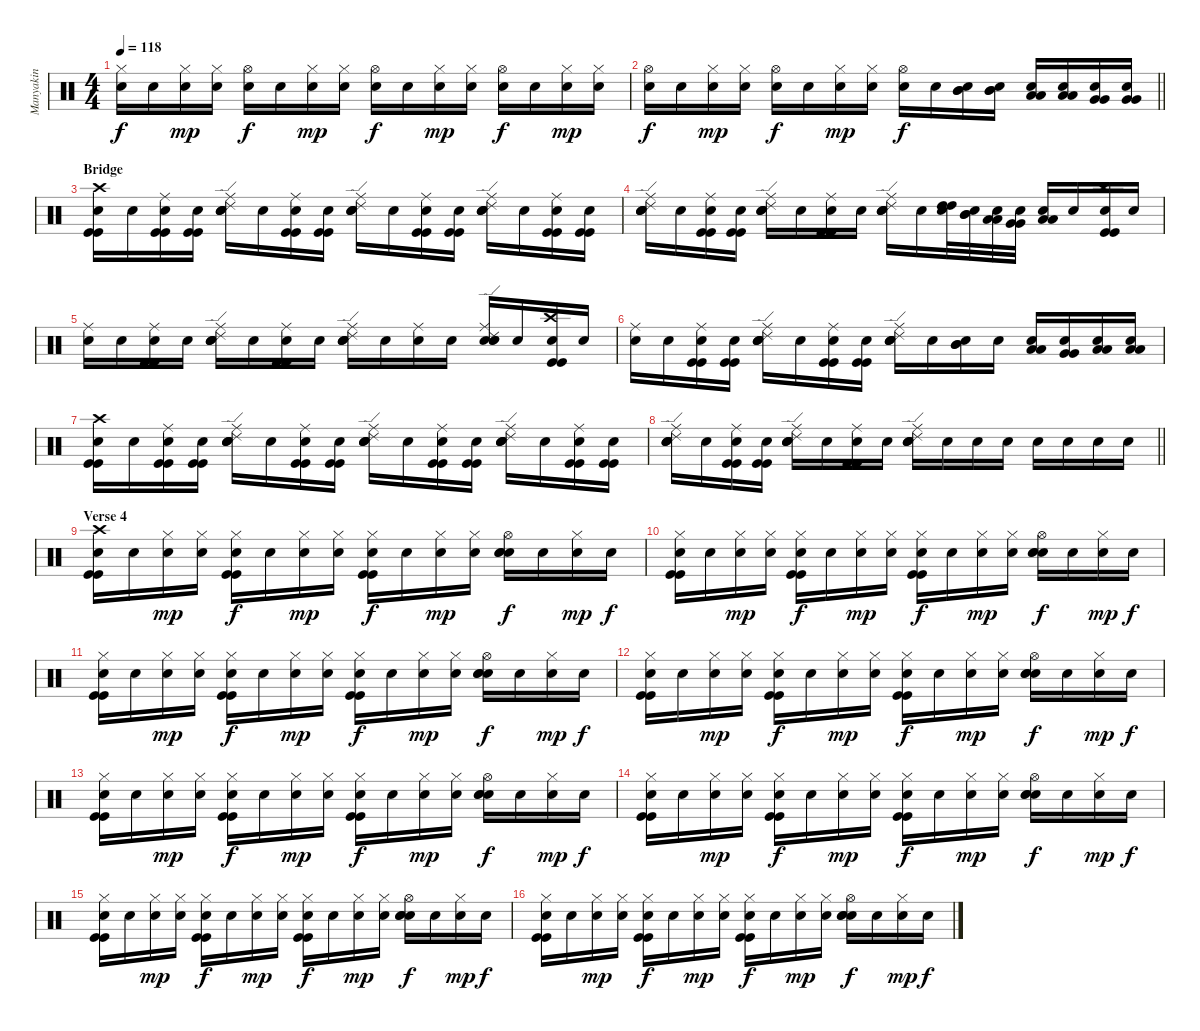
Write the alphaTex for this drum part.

\track ("Manyakin" "Manyakin") {instrument percussion}
\staff {score}
\articulation defaults
\ts (4 4)
\tempo 118
\clef neutral
\ks c
("Hi-Hat (closed)" "Snare (hit)"{x}).16{dy f} "Snare (hit)"{x}.16 ("Hi-Hat (closed)" "Snare (hit)"{x}).16{dy mp} ("Hi-Hat (closed)" "Snare (hit)"{x}).16 ("Hi-Hat (open)" "Snare (hit)"{x}).16{dy f} "Snare (hit)"{x}.16 ("Hi-Hat (closed)" "Snare (hit)"{x}).16{dy mp} ("Hi-Hat (closed)" "Snare (hit)"{x}).16 ("Hi-Hat (open)" "Snare (hit)"{x}).16{dy f} "Snare (hit)"{x}.16 ("Hi-Hat (closed)" "Snare (hit)"{x}).16{dy mp} ("Hi-Hat (closed)" "Snare (hit)"{x}).16 ("Hi-Hat (open)" "Snare (hit)"{x}).16{dy f} "Snare (hit)"{x}.16 ("Hi-Hat (closed)" "Snare (hit)"{x}).16{dy mp} ("Hi-Hat (closed)" "Snare (hit)"{x}).16 |
\barLineRight lightlight
("Hi-Hat (open)" "Snare (hit)"{x}).16{dy f} "Snare (hit)"{x}.16 ("Hi-Hat (closed)" "Snare (hit)"{x}).16{dy mp} ("Hi-Hat (closed)" "Snare (hit)"{x}).16 ("Hi-Hat (open)" "Snare (hit)"{x}).16{dy f} "Snare (hit)"{x}.16 ("Hi-Hat (closed)" "Snare (hit)"{x}).16{dy mp} ("Hi-Hat (closed)" "Snare (hit)"{x}).16 ("Hi-Hat (open)" "Snare (hit)"{x}).16{dy f} "Snare (hit)"{x}.16 ("Mid Tom (hit)" "Mid Tom (hit)" "Snare (hit)"{x}).16 ("Mid Tom (hit)" "Mid Tom (hit)" "Snare (hit)"{x}).16 ("Low Tom (hit)" "Low Tom (hit)" "Snare (hit)"{x}).16 ("Low Tom (hit)" "Low Tom (hit)" "Snare (hit)"{x}).16 ("Very Low Tom (hit)" "Very Low Tom (hit)" "Snare (hit)"{x}).16 ("Very Low Tom (hit)" "Very Low Tom (hit)" "Snare (hit)"{x}).16 |
\section ("" "Bridge")
("Crash high (hit)" "Kick (hit)" "Kick (hit)" "Snare (hit)"{x}).16 "Snare (hit)"{x}.16 ("Ride (middle)" "Kick (hit)" "Kick (hit)" "Snare (hit)"{x}).16 ("Kick (hit)" "Kick (hit)" "Snare (hit)"{x}).16 ("Ride (middle)" "Ride (edge) 2" "Electric Snare (hit)" "Electric Snare (hit)" "Snare (hit)"{x}).16 "Snare (hit)"{x}.16 ("Ride (middle)" "Kick (hit)" "Kick (hit)" "Snare (hit)"{x}).16 ("Kick (hit)" "Kick (hit)" "Snare (hit)"{x}).16 ("Ride (middle)" "Ride (edge) 2" "Electric Snare (hit)" "Electric Snare (hit)" "Snare (hit)"{x}).16 "Snare (hit)"{x}.16 ("Ride (middle)" "Kick (hit)" "Kick (hit)" "Snare (hit)"{x}).16 ("Kick (hit)" "Kick (hit)" "Snare (hit)"{x}).16 ("Ride (middle)" "Ride (edge) 2" "Electric Snare (hit)" "Electric Snare (hit)" "Snare (hit)"{x}).16 "Snare (hit)"{x}.16 ("Ride (middle)" "Kick (hit)" "Kick (hit)" "Snare (hit)"{x}).16 ("Kick (hit)" "Kick (hit)" "Snare (hit)"{x}).16 |
("Ride (middle)" "Ride (edge) 2" "Electric Snare (hit)" "Electric Snare (hit)" "Snare (hit)"{x}).16 "Snare (hit)"{x}.16 ("Ride (middle)" "Kick (hit)" "Kick (hit)" "Snare (hit)"{x}).16 ("Kick (hit)" "Kick (hit)" "Snare (hit)"{x}).16 ("Ride (middle)" "Ride (edge) 2" "Electric Snare (hit)" "Electric Snare (hit)" "Snare (hit)"{x}).16 "Snare (hit)"{x}.16 ("Ride (middle)" "Kick (hit)" "Kick (hit)" "Snare (hit)"{x}).16 "Snare (hit)"{x}.16 ("Ride (middle)" "Ride (edge) 2" "Electric Snare (hit)" "Electric Snare (hit)" "Snare (hit)"{x}).16 "Snare (hit)"{x}.16 ("High Tom (hit)" "High Tom (hit)" "Snare (hit)"{x}).32 ("Mid Tom (hit)" "Mid Tom (hit)" "Snare (hit)"{x}).32 ("Low Tom (hit)" "Low Tom (hit)" "Snare (hit)"{x}).32 ("Very Low Tom (hit)" "Very Low Tom (hit)" "Snare (hit)"{x}).32 ("Low Floor Tom (hit)" "Low Floor Tom (hit)" "Snare (hit)"{x}).16 "Snare (hit)"{x}.16 ("Crash high (hit)" "Kick (hit)" "Kick (hit)" "Snare (hit)"{x}).16 "Snare (hit)"{x}.16 |
("Ride (middle)" "Snare (hit)"{x}).16 "Snare (hit)"{x}.16 ("Ride (middle)" "Kick (hit)" "Kick (hit)" "Snare (hit)"{x}).16 "Snare (hit)"{x}.16 ("Ride (middle)" "Ride (edge) 2" "Electric Snare (hit)" "Electric Snare (hit)" "Snare (hit)"{x}).16 "Snare (hit)"{x}.16 ("Ride (middle)" "Kick (hit)" "Kick (hit)" "Snare (hit)"{x}).16 "Snare (hit)"{x}.16 ("Ride (middle)" "Ride (edge) 2" "Electric Snare (hit)" "Electric Snare (hit)" "Snare (hit)"{x}).16 "Snare (hit)"{x}.16 ("Ride (middle)" "Snare (hit)"{x}).16 "Snare (hit)"{x}.16 ("Ride (middle)" "Ride (edge) 2" "Electric Snare (hit)" "Electric Snare (hit)" "Snare (hit)"{x}).16 "Snare (hit)"{x}.16 ("Crash high (hit)" "Kick (hit)" "Kick (hit)" "Snare (hit)"{x}).16 "Snare (hit)"{x}.16 |
("Ride (middle)" "Snare (hit)"{x}).16 "Snare (hit)"{x}.16 ("Ride (middle)" "Kick (hit)" "Kick (hit)" "Snare (hit)"{x}).16 ("Kick (hit)" "Kick (hit)" "Snare (hit)"{x}).16 ("Ride (middle)" "Ride (edge) 2" "Electric Snare (hit)" "Electric Snare (hit)" "Snare (hit)"{x}).16 "Snare (hit)"{x}.16 ("Ride (middle)" "Kick (hit)" "Kick (hit)" "Snare (hit)"{x}).16 ("Kick (hit)" "Kick (hit)" "Snare (hit)"{x}).16 ("Ride (middle)" "Ride (edge) 2" "Electric Snare (hit)" "Electric Snare (hit)" "Snare (hit)"{x}).16 "Snare (hit)"{x}.16 ("Mid Tom (hit)" "Mid Tom (hit)" "Snare (hit)"{x}).16 "Snare (hit)"{x}.16 ("Low Tom (hit)" "Low Tom (hit)" "Snare (hit)"{x}).16 ("Very Low Tom (hit)" "Very Low Tom (hit)" "Snare (hit)"{x}).16 ("Low Floor Tom (hit)" "Low Floor Tom (hit)" "Snare (hit)"{x}).16 ("Low Floor Tom (hit)" "Low Floor Tom (hit)" "Snare (hit)"{x}).16 |
("Crash high (hit)" "Kick (hit)" "Kick (hit)" "Snare (hit)"{x}).16 "Snare (hit)"{x}.16 ("Ride (middle)" "Kick (hit)" "Kick (hit)" "Snare (hit)"{x}).16 ("Kick (hit)" "Kick (hit)" "Snare (hit)"{x}).16 ("Ride (middle)" "Ride (edge) 2" "Electric Snare (hit)" "Electric Snare (hit)" "Snare (hit)"{x}).16 "Snare (hit)"{x}.16 ("Ride (middle)" "Kick (hit)" "Kick (hit)" "Snare (hit)"{x}).16 ("Kick (hit)" "Kick (hit)" "Snare (hit)"{x}).16 ("Ride (middle)" "Ride (edge) 2" "Electric Snare (hit)" "Electric Snare (hit)" "Snare (hit)"{x}).16 "Snare (hit)"{x}.16 ("Ride (middle)" "Kick (hit)" "Kick (hit)" "Snare (hit)"{x}).16 ("Kick (hit)" "Kick (hit)" "Snare (hit)"{x}).16 ("Ride (middle)" "Ride (edge) 2" "Electric Snare (hit)" "Electric Snare (hit)" "Snare (hit)"{x}).16 "Snare (hit)"{x}.16 ("Ride (middle)" "Kick (hit)" "Kick (hit)" "Snare (hit)"{x}).16 ("Kick (hit)" "Kick (hit)" "Snare (hit)"{x}).16 |
\barLineRight lightlight
("Ride (middle)" "Ride (edge) 2" "Electric Snare (hit)" "Electric Snare (hit)" "Snare (hit)"{x}).16 "Snare (hit)"{x}.16 ("Ride (middle)" "Kick (hit)" "Kick (hit)" "Snare (hit)"{x}).16 ("Kick (hit)" "Kick (hit)" "Snare (hit)"{x}).16 ("Ride (middle)" "Ride (edge) 2" "Electric Snare (hit)" "Electric Snare (hit)" "Snare (hit)"{x}).16 "Snare (hit)"{x}.16 ("Ride (middle)" "Kick (hit)" "Kick (hit)" "Snare (hit)"{x}).16 "Snare (hit)"{x}.16 ("Ride (middle)" "Ride (edge) 2" "Electric Snare (hit)" "Electric Snare (hit)" "Snare (hit)"{x}).16 "Snare (hit)"{x}.16 "Snare (hit)"{x}.16 "Snare (hit)"{x}.16 "Snare (hit)"{x}.16 "Snare (hit)"{x}.16 "Snare (hit)"{x}.16 "Snare (hit)"{x}.16 |
\section ("" "Verse 4")
("Crash high (hit)" "Kick (hit)" "Kick (hit)" "Snare (hit)"{x}).16 "Snare (hit)"{x}.16 ("Hi-Hat (closed)" "Snare (hit)"{x}).16{dy mp} ("Hi-Hat (closed)" "Snare (hit)"{x}).16 ("Hi-Hat (closed)" "Kick (hit)" "Kick (hit)" "Snare (hit)"{x}).16{dy f} "Snare (hit)"{x}.16 ("Hi-Hat (closed)" "Snare (hit)"{x}).16{dy mp} ("Hi-Hat (closed)" "Snare (hit)"{x}).16 ("Hi-Hat (closed)" "Kick (hit)" "Kick (hit)" "Snare (hit)"{x}).16{dy f} "Snare (hit)"{x}.16 ("Hi-Hat (closed)" "Snare (hit)"{x}).16{dy mp} ("Hi-Hat (closed)" "Snare (hit)"{x}).16 ("Hi-Hat (open)" "Electric Snare (hit)" "Electric Snare (hit)" "Snare (hit)"{x}).16{dy f} "Snare (hit)"{x}.16 ("Hi-Hat (closed)" "Snare (hit)"{x}).16{dy mp} "Snare (hit)"{x}.16{dy f} |
("Hi-Hat (closed)" "Kick (hit)" "Kick (hit)" "Snare (hit)"{x}).16 "Snare (hit)"{x}.16 ("Hi-Hat (closed)" "Snare (hit)"{x}).16{dy mp} ("Hi-Hat (closed)" "Snare (hit)"{x}).16 ("Hi-Hat (closed)" "Kick (hit)" "Kick (hit)" "Snare (hit)"{x}).16{dy f} "Snare (hit)"{x}.16 ("Hi-Hat (closed)" "Snare (hit)"{x}).16{dy mp} ("Hi-Hat (closed)" "Snare (hit)"{x}).16 ("Hi-Hat (closed)" "Kick (hit)" "Kick (hit)" "Snare (hit)"{x}).16{dy f} "Snare (hit)"{x}.16 ("Hi-Hat (closed)" "Snare (hit)"{x}).16{dy mp} ("Hi-Hat (closed)" "Snare (hit)"{x}).16 ("Hi-Hat (open)" "Electric Snare (hit)" "Electric Snare (hit)" "Snare (hit)"{x}).16{dy f} "Snare (hit)"{x}.16 ("Hi-Hat (closed)" "Snare (hit)"{x}).16{dy mp} "Snare (hit)"{x}.16{dy f} |
("Hi-Hat (closed)" "Kick (hit)" "Kick (hit)" "Snare (hit)"{x}).16 "Snare (hit)"{x}.16 ("Hi-Hat (closed)" "Snare (hit)"{x}).16{dy mp} ("Hi-Hat (closed)" "Snare (hit)"{x}).16 ("Hi-Hat (closed)" "Kick (hit)" "Kick (hit)" "Snare (hit)"{x}).16{dy f} "Snare (hit)"{x}.16 ("Hi-Hat (closed)" "Snare (hit)"{x}).16{dy mp} ("Hi-Hat (closed)" "Snare (hit)"{x}).16 ("Hi-Hat (closed)" "Kick (hit)" "Kick (hit)" "Snare (hit)"{x}).16{dy f} "Snare (hit)"{x}.16 ("Hi-Hat (closed)" "Snare (hit)"{x}).16{dy mp} ("Hi-Hat (closed)" "Snare (hit)"{x}).16 ("Hi-Hat (open)" "Electric Snare (hit)" "Electric Snare (hit)" "Snare (hit)"{x}).16{dy f} "Snare (hit)"{x}.16 ("Hi-Hat (closed)" "Snare (hit)"{x}).16{dy mp} "Snare (hit)"{x}.16{dy f} |
("Hi-Hat (closed)" "Kick (hit)" "Kick (hit)" "Snare (hit)"{x}).16 "Snare (hit)"{x}.16 ("Hi-Hat (closed)" "Snare (hit)"{x}).16{dy mp} ("Hi-Hat (closed)" "Snare (hit)"{x}).16 ("Hi-Hat (closed)" "Kick (hit)" "Kick (hit)" "Snare (hit)"{x}).16{dy f} "Snare (hit)"{x}.16 ("Hi-Hat (closed)" "Snare (hit)"{x}).16{dy mp} ("Hi-Hat (closed)" "Snare (hit)"{x}).16 ("Hi-Hat (closed)" "Kick (hit)" "Kick (hit)" "Snare (hit)"{x}).16{dy f} "Snare (hit)"{x}.16 ("Hi-Hat (closed)" "Snare (hit)"{x}).16{dy mp} ("Hi-Hat (closed)" "Snare (hit)"{x}).16 ("Hi-Hat (open)" "Electric Snare (hit)" "Electric Snare (hit)" "Snare (hit)"{x}).16{dy f} "Snare (hit)"{x}.16 ("Hi-Hat (closed)" "Snare (hit)"{x}).16{dy mp} "Snare (hit)"{x}.16{dy f} |
("Hi-Hat (closed)" "Kick (hit)" "Kick (hit)" "Snare (hit)"{x}).16 "Snare (hit)"{x}.16 ("Hi-Hat (closed)" "Snare (hit)"{x}).16{dy mp} ("Hi-Hat (closed)" "Snare (hit)"{x}).16 ("Hi-Hat (closed)" "Kick (hit)" "Kick (hit)" "Snare (hit)"{x}).16{dy f} "Snare (hit)"{x}.16 ("Hi-Hat (closed)" "Snare (hit)"{x}).16{dy mp} ("Hi-Hat (closed)" "Snare (hit)"{x}).16 ("Hi-Hat (closed)" "Kick (hit)" "Kick (hit)" "Snare (hit)"{x}).16{dy f} "Snare (hit)"{x}.16 ("Hi-Hat (closed)" "Snare (hit)"{x}).16{dy mp} ("Hi-Hat (closed)" "Snare (hit)"{x}).16 ("Hi-Hat (open)" "Electric Snare (hit)" "Electric Snare (hit)" "Snare (hit)"{x}).16{dy f} "Snare (hit)"{x}.16 ("Hi-Hat (closed)" "Snare (hit)"{x}).16{dy mp} "Snare (hit)"{x}.16{dy f} |
("Hi-Hat (closed)" "Kick (hit)" "Kick (hit)" "Snare (hit)"{x}).16 "Snare (hit)"{x}.16 ("Hi-Hat (closed)" "Snare (hit)"{x}).16{dy mp} ("Hi-Hat (closed)" "Snare (hit)"{x}).16 ("Hi-Hat (closed)" "Kick (hit)" "Kick (hit)" "Snare (hit)"{x}).16{dy f} "Snare (hit)"{x}.16 ("Hi-Hat (closed)" "Snare (hit)"{x}).16{dy mp} ("Hi-Hat (closed)" "Snare (hit)"{x}).16 ("Hi-Hat (closed)" "Kick (hit)" "Kick (hit)" "Snare (hit)"{x}).16{dy f} "Snare (hit)"{x}.16 ("Hi-Hat (closed)" "Snare (hit)"{x}).16{dy mp} ("Hi-Hat (closed)" "Snare (hit)"{x}).16 ("Hi-Hat (open)" "Electric Snare (hit)" "Electric Snare (hit)" "Snare (hit)"{x}).16{dy f} "Snare (hit)"{x}.16 ("Hi-Hat (closed)" "Snare (hit)"{x}).16{dy mp} "Snare (hit)"{x}.16{dy f} |
("Hi-Hat (closed)" "Kick (hit)" "Kick (hit)" "Snare (hit)"{x}).16 "Snare (hit)"{x}.16 ("Hi-Hat (closed)" "Snare (hit)"{x}).16{dy mp} ("Hi-Hat (closed)" "Snare (hit)"{x}).16 ("Hi-Hat (closed)" "Kick (hit)" "Kick (hit)" "Snare (hit)"{x}).16{dy f} "Snare (hit)"{x}.16 ("Hi-Hat (closed)" "Snare (hit)"{x}).16{dy mp} ("Hi-Hat (closed)" "Snare (hit)"{x}).16 ("Hi-Hat (closed)" "Kick (hit)" "Kick (hit)" "Snare (hit)"{x}).16{dy f} "Snare (hit)"{x}.16 ("Hi-Hat (closed)" "Snare (hit)"{x}).16{dy mp} ("Hi-Hat (closed)" "Snare (hit)"{x}).16 ("Hi-Hat (open)" "Electric Snare (hit)" "Electric Snare (hit)" "Snare (hit)"{x}).16{dy f} "Snare (hit)"{x}.16 ("Hi-Hat (closed)" "Snare (hit)"{x}).16{dy mp} "Snare (hit)"{x}.16{dy f} |
("Hi-Hat (closed)" "Kick (hit)" "Kick (hit)" "Snare (hit)"{x}).16 "Snare (hit)"{x}.16 ("Hi-Hat (closed)" "Snare (hit)"{x}).16{dy mp} ("Hi-Hat (closed)" "Snare (hit)"{x}).16 ("Hi-Hat (closed)" "Kick (hit)" "Kick (hit)" "Snare (hit)"{x}).16{dy f} "Snare (hit)"{x}.16 ("Hi-Hat (closed)" "Snare (hit)"{x}).16{dy mp} ("Hi-Hat (closed)" "Snare (hit)"{x}).16 ("Hi-Hat (closed)" "Kick (hit)" "Kick (hit)" "Snare (hit)"{x}).16{dy f} "Snare (hit)"{x}.16 ("Hi-Hat (closed)" "Snare (hit)"{x}).16{dy mp} ("Hi-Hat (closed)" "Snare (hit)"{x}).16 ("Hi-Hat (open)" "Electric Snare (hit)" "Electric Snare (hit)" "Snare (hit)"{x}).16{dy f} "Snare (hit)"{x}.16 ("Hi-Hat (closed)" "Snare (hit)"{x}).16{dy mp} "Snare (hit)"{x}.16{dy f}
